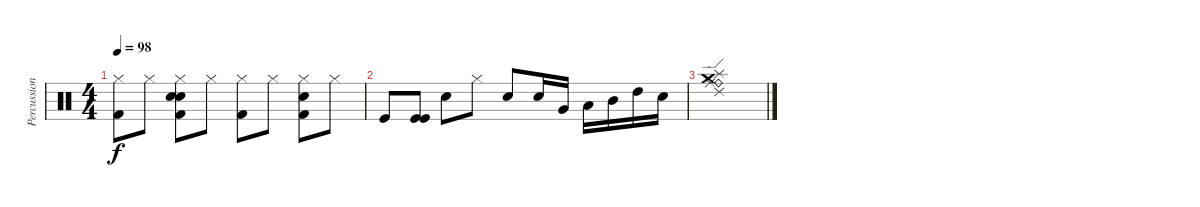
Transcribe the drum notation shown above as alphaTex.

\track ("Percussion" "Percussion") {instrument percussion}
\staff {score}
\articulation defaults
\ts (4 4)
\tempo 98
\clef neutral
\ks c
("Kick (hit) 2" "Hi-Hat (closed)").8{dy f} "Hi-Hat (closed)".8 ("Hi-Hat (closed)" "Snare (hit)" "Snare (hit) 2" "Kick (hit) 2").8 "Hi-Hat (closed)".8 ("Hi-Hat (closed)" "Kick (hit) 2").8 "Hi-Hat (closed)".8 ("Hi-Hat (closed)" "Snare (hit) 2" "Kick (hit) 2").8 "Hi-Hat (closed)".8 |
"Kick (hit)".8 ("Kick (hit)" "Kick (hit)").8 "Snare (hit) 2".8 "Hi-Hat (closed)".8 "Snare (hit) 2".8 "Snare (hit) 2".16 "Very Low Tom (hit)".16 "Low Tom (hit)".16 "Mid Tom (hit)".16 "High Tom (hit)".16 "Electric Snare (hit)".16 |
("Ride (bell)" "Ride (middle)" "Ride (edge) 2" "Crash medium (hit)" "Splash (hit)").1
